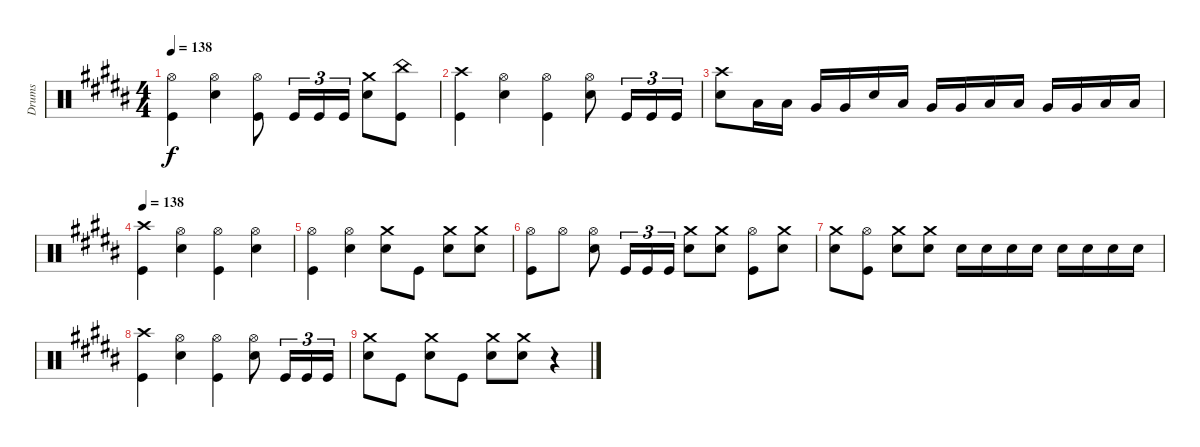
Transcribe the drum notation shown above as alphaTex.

\track ("Drums" "Drums") {instrument percussion}
\staff {score}
\articulation defaults
\ts (4 4)
\tempo 138
\clef neutral
\ks g#minor
("Kick (hit)" "Hi-Hat (open)").4{dy f} ("Snare (hit) 2" "Hi-Hat (open)").4 ("Kick (hit)" "Hi-Hat (open)").8 "Kick (hit)".16{tu (3 2)} "Kick (hit)".16{tu (3 2)} "Kick (hit)".16{tu (3 2)} ("Snare (hit) 2" "Crash medium (hit)").8 ("China (hit)" "Kick (hit)").8 |
("Crash high (hit)" "Kick (hit)").4 ("Snare (hit) 2" "Hi-Hat (open)").4 ("Kick (hit)" "Hi-Hat (open)").4 ("Snare (hit) 2" "Hi-Hat (open)").8 "Kick (hit)".16{tu (3 2)} "Kick (hit)".16{tu (3 2)} "Kick (hit)".16{tu (3 2)} |
("Snare (hit) 2" "Crash high (hit)").8 "Low Tom (hit)".16 "Low Tom (hit)".16 "Very Low Tom (hit)".16 "Very Low Tom (hit)".16 "Snare (hit) 2".16 "Low Tom (hit)".16 "Very Low Tom (hit)".16 "Very Low Tom (hit)".16 "Low Floor Tom (hit)".16 "Low Floor Tom (hit)".16 "Very Low Tom (hit)".16 "Very Low Tom (hit)".16 "Low Floor Tom (hit)".16 "Low Floor Tom (hit)".16 |
\tempo 150
\tempo 138
\ks b
("Crash high (hit)" "Kick (hit)").4 ("Snare (hit) 2" "Hi-Hat (open)").4 ("Kick (hit)" "Hi-Hat (open)").4 ("Snare (hit) 2" "Hi-Hat (open)").4 |
\ks g#minor
("Kick (hit)" "Hi-Hat (open)").4 ("Snare (hit) 2" "Hi-Hat (open)").4 ("Snare (hit) 2" "Crash medium (hit)").8 "Kick (hit)".8 ("Snare (hit) 2" "Crash medium (hit)").8 ("Snare (hit) 2" "Crash medium (hit)").8 |
("Kick (hit)" "Hi-Hat (open)").8 "Hi-Hat (open)".8 ("Snare (hit) 2" "Hi-Hat (open)").8 "Kick (hit)".16{tu (3 2)} "Kick (hit)".16{tu (3 2)} "Kick (hit)".16{tu (3 2)} ("Snare (hit) 2" "Crash medium (hit)").8 ("Snare (hit) 2" "Crash medium (hit)").8 ("Kick (hit)" "Hi-Hat (open)").8 ("Snare (hit) 2" "Crash medium (hit)").8 |
("Snare (hit) 2" "Crash medium (hit)").8 ("Kick (hit)" "Hi-Hat (open)").8 ("Snare (hit) 2" "Crash medium (hit)").8 ("Snare (hit) 2" "Crash medium (hit)").8 "Snare (hit) 2".16 "Snare (hit) 2".16 "Snare (hit) 2".16 "Snare (hit) 2".16 "Snare (hit) 2".16 "Snare (hit) 2".16 "Snare (hit) 2".16 "Snare (hit) 2".16 |
\ks b
("Crash high (hit)" "Kick (hit)").4 ("Snare (hit) 2" "Hi-Hat (open)").4 ("Kick (hit)" "Hi-Hat (open)").4 ("Snare (hit) 2" "Hi-Hat (open)").8 "Kick (hit)".16{tu (3 2)} "Kick (hit)".16{tu (3 2)} "Kick (hit)".16{tu (3 2)} |
\ks g#minor
("Snare (hit) 2" "Crash medium (hit)").8 "Kick (hit)".8 ("Snare (hit) 2" "Crash medium (hit)").8 "Kick (hit)".8 ("Snare (hit) 2" "Crash medium (hit)").8 ("Snare (hit) 2" "Crash medium (hit)").8 r.4
